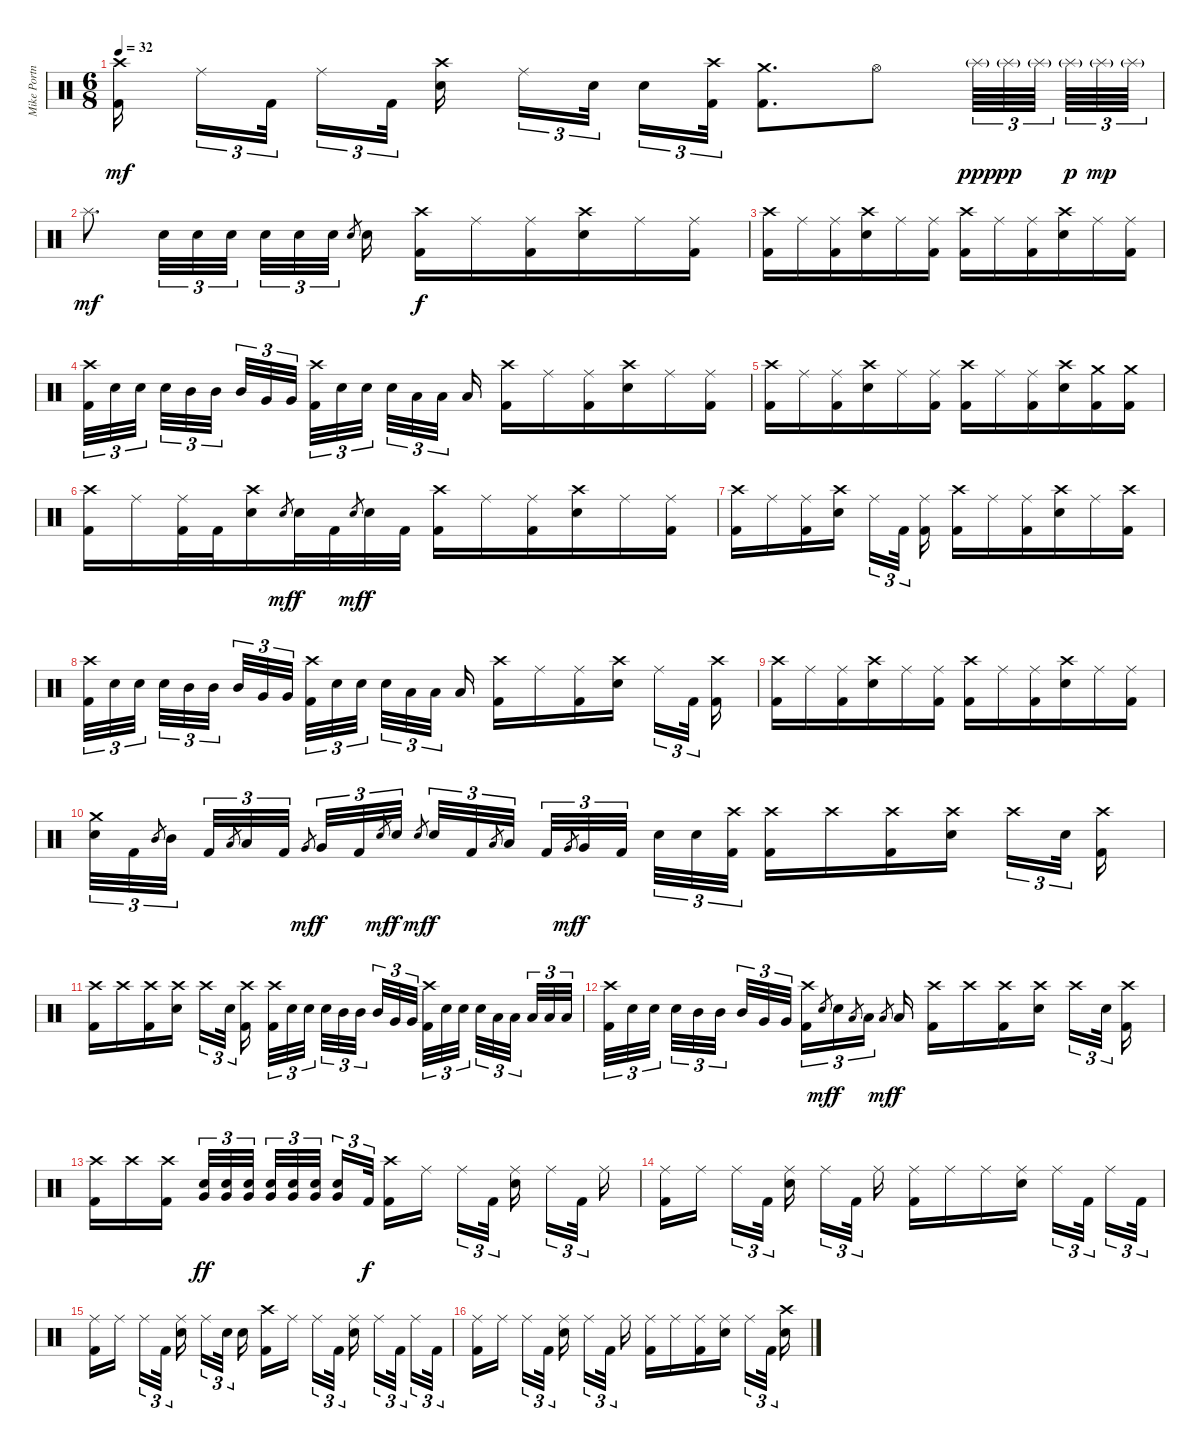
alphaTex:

\track ("Mike Portnoy" "Mike Portn") {instrument percussion}
\staff {score}
\articulation defaults
\ts (6 8)
\tempo 32
\clef neutral
\ks c
("Crash high (hit)" "Kick (hit) 2").16{dy mf beam splitsecondary} "Ride (middle)".16{tu (3 2)} "Kick (hit) 2".32{tu (3 2) beam splitsecondary} "Ride (middle)".16{tu (3 2)} "Kick (hit) 2".32{tu (3 2) beam splitsecondary} ("Crash high (hit)" "Snare (hit) 2").16{beam splitsecondary} "Ride (middle)".16{tu (3 2)} "Snare (hit) 2".32{tu (3 2) beam splitsecondary} "Snare (hit) 2".16{tu (3 2)} ("Crash high (hit)" "Kick (hit) 2").32{tu (3 2)} ("Crash medium (hit)" "Kick (hit) 2").8{d} "Hi-Hat (open)".8 "Splash (hit)"{g}.64{tu (3 2) dy ppp} "Splash (hit)"{g}.64{tu (3 2) dy pp} "Splash (hit)"{g}.64{tu (3 2) beam splitsecondary} "Splash (hit)"{g}.64{tu (3 2) dy p} "Splash (hit)"{g}.64{tu (3 2) dy mp} "Splash (hit)"{g}.64{tu (3 2)} |
"Splash (hit)".8{d dy mf} "Snare (hit) 2".32{tu (3 2)} "Snare (hit) 2".32{tu (3 2)} "Snare (hit) 2".32{tu (3 2) beam splitsecondary} "Snare (hit) 2".32{tu (3 2)} "Snare (hit) 2".32{tu (3 2)} "Snare (hit) 2".32{tu (3 2)} "Snare (hit) 2".8{gr beam splitsecondary} "Snare (hit) 2".16 ("Crash high (hit)" "Kick (hit) 2").16{dy f} "Ride (middle)".16 ("Ride (middle)" "Kick (hit) 2").16 ("Crash high (hit)" "Snare (hit) 2").16 "Ride (middle)".16 ("Ride (middle)" "Kick (hit) 2").16 |
("Crash high (hit)" "Kick (hit) 2").16 "Ride (middle)".16 ("Ride (middle)" "Kick (hit) 2").16 ("Crash high (hit)" "Snare (hit) 2").16 "Ride (middle)".16 ("Ride (middle)" "Kick (hit) 2").16 ("Crash high (hit)" "Kick (hit) 2").16 "Ride (middle)".16 ("Ride (middle)" "Kick (hit) 2").16 ("Crash high (hit)" "Snare (hit) 2").16 "Ride (middle)".16 ("Ride (middle)" "Kick (hit) 2").16 |
("Crash high (hit)" "Kick (hit) 2").32{tu (3 2)} "Snare (hit) 2".32{tu (3 2)} "Snare (hit) 2".32{tu (3 2) beam splitsecondary} "Snare (hit) 2".32{tu (3 2)} "Mid Tom (hit)".32{tu (3 2)} "Mid Tom (hit)".32{tu (3 2) beam splitsecondary} "Mid Tom (hit)".32{tu (3 2)} "Very Low Tom (hit)".32{tu (3 2)} "Very Low Tom (hit)".32{tu (3 2) beam splitsecondary} ("Crash high (hit)" "Kick (hit) 2").32{tu (3 2)} "Snare (hit) 2".32{tu (3 2)} "Snare (hit) 2".32{tu (3 2) beam splitsecondary} "Snare (hit) 2".32{tu (3 2)} "Low Tom (hit)".32{tu (3 2)} "Low Tom (hit)".32{tu (3 2) beam splitsecondary} "Low Tom (hit)".16 ("Crash high (hit)" "Kick (hit) 2").16 "Ride (middle)".16 ("Ride (middle)" "Kick (hit) 2").16 ("Crash high (hit)" "Electric Snare (hit)").16 "Ride (middle)".16 ("Ride (middle)" "Kick (hit) 2").16 |
("Crash high (hit)" "Kick (hit) 2").16 "Ride (middle)".16 ("Ride (middle)" "Kick (hit) 2").16 ("Crash high (hit)" "Snare (hit) 2").16 "Ride (middle)".16 ("Ride (middle)" "Kick (hit) 2").16 ("Crash high (hit)" "Kick (hit) 2").16 "Ride (middle)".16 ("Ride (middle)" "Kick (hit) 2").16 ("Crash high (hit)" "Snare (hit) 2").16 ("Crash medium (hit)" "Kick (hit) 2").16 ("Crash medium (hit)" "Kick (hit) 2").16 |
("Crash high (hit)" "Kick (hit) 2").16 "Ride (middle)".16 ("Ride (middle)" "Kick (hit) 2").32 "Kick (hit) 2".32 ("Crash high (hit)" "Snare (hit) 2").16 "Snare (hit) 2".8{gr dy mf} "Snare (hit) 2".32{dy f} "Kick (hit) 2".32 "Snare (hit) 2".8{gr dy mf} "Snare (hit) 2".32{dy f} "Kick (hit) 2".32 ("Crash high (hit)" "Kick (hit) 2").16 "Ride (middle)".16 ("Ride (middle)" "Kick (hit) 2").16 ("Crash high (hit)" "Snare (hit) 2").16 "Ride (middle)".16 ("Ride (middle)" "Kick (hit) 2").16 |
("Crash high (hit)" "Kick (hit) 2").16 "Ride (middle)".16 ("Ride (middle)" "Kick (hit) 2").16 ("Crash high (hit)" "Snare (hit) 2").16{beam splitsecondary} "Ride (middle)".16{tu (3 2)} "Kick (hit) 2".32{tu (3 2) beam splitsecondary} ("Ride (middle)" "Kick (hit) 2").16 ("Crash high (hit)" "Kick (hit) 2").16 "Ride (middle)".16 ("Ride (middle)" "Kick (hit) 2").16 ("Crash high (hit)" "Snare (hit) 2").16 "Ride (middle)".16 ("Crash high (hit)" "Kick (hit) 2").16 |
("Crash high (hit)" "Kick (hit) 2").32{tu (3 2)} "Snare (hit) 2".32{tu (3 2)} "Snare (hit) 2".32{tu (3 2) beam splitsecondary} "Snare (hit) 2".32{tu (3 2)} "Mid Tom (hit)".32{tu (3 2)} "Mid Tom (hit)".32{tu (3 2) beam splitsecondary} "Mid Tom (hit)".32{tu (3 2)} "Very Low Tom (hit)".32{tu (3 2)} "Very Low Tom (hit)".32{tu (3 2) beam splitsecondary} ("Crash high (hit)" "Kick (hit) 2").32{tu (3 2)} "Snare (hit) 2".32{tu (3 2)} "Snare (hit) 2".32{tu (3 2) beam splitsecondary} "Snare (hit) 2".32{tu (3 2)} "Low Tom (hit)".32{tu (3 2)} "Low Tom (hit)".32{tu (3 2) beam splitsecondary} "Low Tom (hit)".16 ("Crash high (hit)" "Kick (hit) 2").16 "Ride (middle)".16 ("Ride (middle)" "Kick (hit) 2").16 ("Crash high (hit)" "Snare (hit) 2").16{beam splitsecondary} "Ride (middle)".16{tu (3 2)} "Kick (hit) 2".32{tu (3 2) beam splitsecondary} ("Crash high (hit)" "Kick (hit) 2").16 |
("Crash high (hit)" "Kick (hit) 2").16 "Ride (middle)".16 ("Ride (middle)" "Kick (hit) 2").16 ("Crash high (hit)" "Snare (hit) 2").16 "Ride (middle)".16 ("Ride (middle)" "Kick (hit) 2").16 ("Crash high (hit)" "Kick (hit) 2").16 "Ride (middle)".16 ("Ride (middle)" "Kick (hit) 2").16 ("Crash high (hit)" "Snare (hit) 2").16 "Ride (middle)".16 ("Ride (middle)" "Kick (hit) 2").16 |
("Crash medium (hit)" "Snare (hit) 2").32{tu (3 2)} "Kick (hit) 2".32{tu (3 2)} "Mid Tom (hit)".8{gr} "Mid Tom (hit)".32{tu (3 2) beam splitsecondary} "Kick (hit) 2".32{tu (3 2)} "Low Tom (hit)".8{gr} "Low Tom (hit)".32{tu (3 2)} "Kick (hit) 2".32{tu (3 2)} "Very Low Tom (hit)".8{gr dy mf beam splitsecondary} "Very Low Tom (hit)".32{tu (3 2) dy f} "Kick (hit) 2".32{tu (3 2)} "Snare (hit) 2".8{gr dy mf} "Snare (hit) 2".32{tu (3 2) dy f} "Snare (hit) 2".8{gr dy mf beam splitsecondary} "Snare (hit) 2".32{tu (3 2) dy f} "Kick (hit) 2".32{tu (3 2)} "Low Tom (hit)".8{gr} "Low Tom (hit)".32{tu (3 2) beam splitsecondary} "Kick (hit) 2".32{tu (3 2)} "Very Low Tom (hit)".8{gr dy mf} "Very Low Tom (hit)".32{tu (3 2) dy f} "Kick (hit) 2".32{tu (3 2) beam splitsecondary} "Snare (hit) 2".32{tu (3 2)} "Snare (hit) 2".32{tu (3 2)} ("Crash high (hit)" "Kick (hit) 2").32{tu (3 2)} ("Crash high (hit)" "Kick (hit) 2").16 "Crash high (hit)".16 ("Crash high (hit)" "Kick (hit) 2").16 ("Crash high (hit)" "Snare (hit) 2").16{beam splitsecondary} "Crash high (hit)".16{tu (3 2)} "Snare (hit) 2".32{tu (3 2) beam splitsecondary} ("Crash high (hit)" "Kick (hit) 2").16 |
("Crash high (hit)" "Kick (hit) 2").16 "Crash high (hit)".16 ("Crash high (hit)" "Kick (hit) 2").16 ("Crash high (hit)" "Snare (hit) 2").16{beam splitsecondary} "Crash high (hit)".16{tu (3 2)} "Snare (hit) 2".32{tu (3 2) beam splitsecondary} ("Crash high (hit)" "Kick (hit) 2").16 ("Crash high (hit)" "Kick (hit) 2").32{tu (3 2)} "Snare (hit) 2".32{tu (3 2)} "Snare (hit) 2".32{tu (3 2) beam splitsecondary} "Snare (hit) 2".32{tu (3 2)} "Mid Tom (hit)".32{tu (3 2)} "Mid Tom (hit)".32{tu (3 2) beam splitsecondary} "Mid Tom (hit)".32{tu (3 2)} "Very Low Tom (hit)".32{tu (3 2)} "Very Low Tom (hit)".32{tu (3 2) beam splitsecondary} ("Crash high (hit)" "Kick (hit) 2").32{tu (3 2)} "Snare (hit) 2".32{tu (3 2)} "Snare (hit) 2".32{tu (3 2) beam splitsecondary} "Snare (hit) 2".32{tu (3 2)} "Low Tom (hit)".32{tu (3 2)} "Low Tom (hit)".32{tu (3 2) beam splitsecondary} "Low Tom (hit)".32{tu (3 2)} "Low Floor Tom (hit)".32{tu (3 2)} "Low Floor Tom (hit)".32{tu (3 2)} |
("Crash high (hit)" "Kick (hit) 2").32{tu (3 2)} "Snare (hit) 2".32{tu (3 2)} "Snare (hit) 2".32{tu (3 2) beam splitsecondary} "Snare (hit) 2".32{tu (3 2)} "Mid Tom (hit)".32{tu (3 2)} "Mid Tom (hit)".32{tu (3 2) beam splitsecondary} "Mid Tom (hit)".32{tu (3 2)} "Very Low Tom (hit)".32{tu (3 2)} "Very Low Tom (hit)".32{tu (3 2) beam splitsecondary} ("Crash high (hit)" "Kick (hit) 2").16{tu (3 2)} "Snare (hit) 2".8{gr dy mf} "Snare (hit) 2".16{tu (3 2) dy f} "Low Tom (hit)".8{gr} "Low Tom (hit)".16{tu (3 2)} "Low Floor Tom (hit)".8{gr dy mf beam splitsecondary} "Low Floor Tom (hit)".16{dy f} ("Crash high (hit)" "Kick (hit) 2").16 "Crash high (hit)".16 ("Crash high (hit)" "Kick (hit) 2").16 ("Crash high (hit)" "Snare (hit) 2").16{beam splitsecondary} "Crash high (hit)".16{tu (3 2)} "Snare (hit) 2".32{tu (3 2) beam splitsecondary} ("Crash high (hit)" "Kick (hit) 2").16 |
("Crash high (hit)" "Kick (hit) 2").16 "Crash high (hit)".16 ("Crash high (hit)" "Kick (hit) 2").16{beam splitsecondary} ("Snare (hit) 2" "Very Low Tom (hit)").32{tu (3 2) dy ff} ("Snare (hit) 2" "Very Low Tom (hit)").32{tu (3 2)} ("Snare (hit) 2" "Very Low Tom (hit)").32{tu (3 2) beam splitsecondary} ("Snare (hit) 2" "Very Low Tom (hit)").32{tu (3 2)} ("Snare (hit) 2" "Very Low Tom (hit)").32{tu (3 2)} ("Snare (hit) 2" "Very Low Tom (hit)").32{tu (3 2) beam splitsecondary} ("Snare (hit) 2" "Very Low Tom (hit)").16{tu (3 2)} "Kick (hit) 2".32{tu (3 2) dy f} ("Crash high (hit)" "Kick (hit) 2").16 "Ride (middle)".16{beam splitsecondary} "Ride (middle)".16{tu (3 2)} "Kick (hit) 2".32{tu (3 2) beam splitsecondary} ("Ride (middle)" "Snare (hit) 2").16{beam splitsecondary} "Ride (middle)".16{tu (3 2)} "Kick (hit) 2".32{tu (3 2) beam splitsecondary} "Ride (middle)".16 |
("Ride (middle)" "Kick (hit) 2").16 "Ride (middle)".16{beam splitsecondary} "Ride (middle)".16{tu (3 2)} "Kick (hit) 2".32{tu (3 2) beam splitsecondary} ("Ride (middle)" "Snare (hit) 2").16{beam splitsecondary} "Ride (middle)".16{tu (3 2)} "Kick (hit) 2".32{tu (3 2) beam splitsecondary} "Ride (middle)".16 ("Ride (middle)" "Kick (hit) 2").16 "Ride (middle)".16 "Ride (middle)".16 ("Ride (middle)" "Snare (hit) 2").16{beam splitsecondary} "Ride (middle)".16{tu (3 2)} "Kick (hit) 2".32{tu (3 2) beam splitsecondary} "Ride (middle)".16{tu (3 2)} "Kick (hit) 2".32{tu (3 2)} |
("Ride (middle)" "Kick (hit) 2").16 "Ride (middle)".16{beam splitsecondary} "Ride (middle)".16{tu (3 2)} "Kick (hit) 2".32{tu (3 2) beam splitsecondary} ("Ride (middle)" "Snare (hit) 2").16{beam splitsecondary} "Ride (middle)".16{tu (3 2)} "Snare (hit) 2".32{tu (3 2) beam splitsecondary} "Snare (hit) 2".16 ("Crash high (hit)" "Kick (hit) 2").16 "Ride (middle)".16{beam splitsecondary} "Ride (middle)".16{tu (3 2)} "Kick (hit) 2".32{tu (3 2) beam splitsecondary} ("Ride (middle)" "Snare (hit) 2").16{beam splitsecondary} "Ride (middle)".16{tu (3 2)} "Kick (hit) 2".32{tu (3 2) beam splitsecondary} "Ride (middle)".16{tu (3 2)} "Kick (hit) 2".32{tu (3 2)} |
("Ride (middle)" "Kick (hit) 2").16 "Ride (middle)".16{beam splitsecondary} "Ride (middle)".16{tu (3 2)} "Kick (hit) 2".32{tu (3 2) beam splitsecondary} ("Ride (middle)" "Snare (hit) 2").16{beam splitsecondary} "Ride (middle)".16{tu (3 2)} "Kick (hit) 2".32{tu (3 2) beam splitsecondary} "Ride (middle)".16 ("Ride (middle)" "Kick (hit) 2").16 "Ride (middle)".16 ("Ride (middle)" "Kick (hit) 2").16 ("Ride (middle)" "Snare (hit) 2").16{beam splitsecondary} "Ride (middle)".16{tu (3 2)} "Kick (hit) 2".32{tu (3 2) beam splitsecondary} ("Crash high (hit)" "Snare (hit) 2").16
